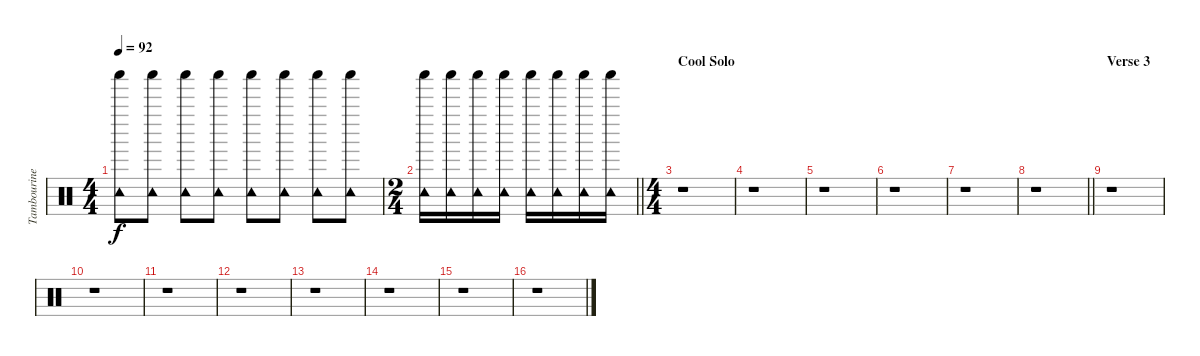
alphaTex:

\track ("Tambourine and Shaker" "Tambourine") {instrument percussion}
\staff {score}
\articulation defaults
\ts (4 4)
\tempo 92
\clef neutral
\ks c
("Shaker (hit)" "Tambourine (hit)").8{dy f} ("Shaker (hit)" "Tambourine (hit)").8 ("Shaker (hit)" "Tambourine (hit)").8 ("Shaker (hit)" "Tambourine (hit)").8 ("Shaker (hit)" "Tambourine (hit)").8 ("Shaker (hit)" "Tambourine (hit)").8 ("Shaker (hit)" "Tambourine (hit)").8 ("Shaker (hit)" "Tambourine (hit)").8 |
\ts (2 4)
\barLineRight lightlight
("Shaker (hit)" "Tambourine (hit)").16 ("Shaker (hit)" "Tambourine (hit)").16 ("Shaker (hit)" "Tambourine (hit)").16 ("Shaker (hit)" "Tambourine (hit)").16 ("Shaker (hit)" "Tambourine (hit)").16 ("Shaker (hit)" "Tambourine (hit)").16 ("Shaker (hit)" "Tambourine (hit)").16 ("Shaker (hit)" "Tambourine (hit)").16 |
\ts (4 4)
\section ("" "Cool Solo")
r.1 |
r.1 |
r.1 |
r.1 |
r.1 |
\barLineRight lightlight
r.1 |
\section ("" "Verse 3")
r.1 |
r.1 |
r.1 |
r.1 |
r.1 |
r.1 |
r.1 |
r.1
